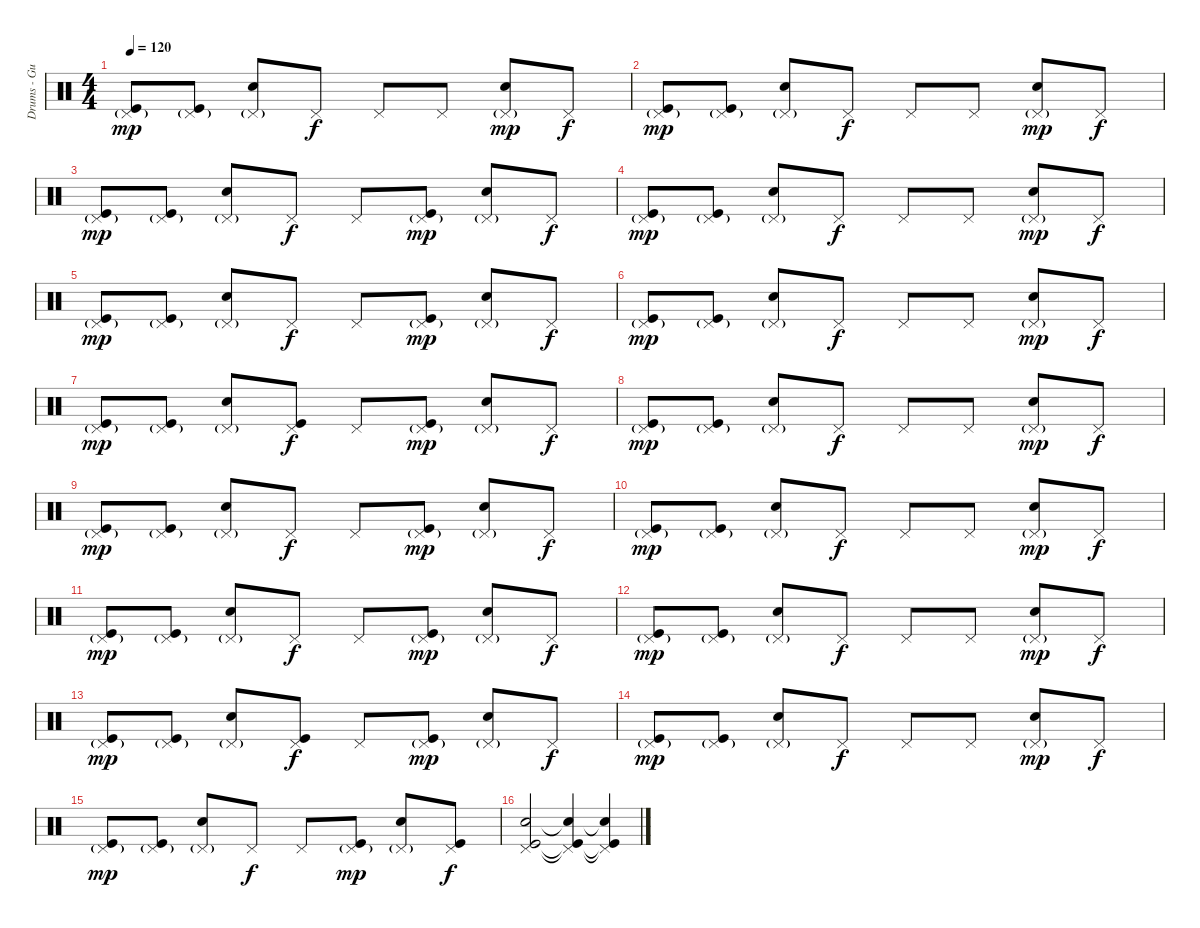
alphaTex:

\track ("Drums - Gustav" "Drums - Gu") {instrument percussion}
\staff {score}
\articulation defaults
\ts (4 4)
\tempo 120
\clef neutral
\ks c
("Kick (hit)" "Pedal Hi-Hat (hit)"{g}).8{dy mp} ("Kick (hit)" "Pedal Hi-Hat (hit)"{g}).8 ("Pedal Hi-Hat (hit)"{g} "Snare (hit) 2").8 "Pedal Hi-Hat (hit)".8{dy f} "Pedal Hi-Hat (hit)".8 "Pedal Hi-Hat (hit)".8 ("Pedal Hi-Hat (hit)"{g} "Snare (hit) 2").8{dy mp} "Pedal Hi-Hat (hit)".8{dy f} |
("Kick (hit)" "Pedal Hi-Hat (hit)"{g}).8{dy mp} ("Kick (hit)" "Pedal Hi-Hat (hit)"{g}).8 ("Pedal Hi-Hat (hit)"{g} "Snare (hit) 2").8 "Pedal Hi-Hat (hit)".8{dy f} "Pedal Hi-Hat (hit)".8 "Pedal Hi-Hat (hit)".8 ("Pedal Hi-Hat (hit)"{g} "Snare (hit) 2").8{dy mp} "Pedal Hi-Hat (hit)".8{dy f} |
("Kick (hit)" "Pedal Hi-Hat (hit)"{g}).8{dy mp} ("Kick (hit)" "Pedal Hi-Hat (hit)"{g}).8 ("Pedal Hi-Hat (hit)"{g} "Snare (hit) 2").8 "Pedal Hi-Hat (hit)".8{dy f} "Pedal Hi-Hat (hit)".8 ("Kick (hit)" "Pedal Hi-Hat (hit)"{g}).8{dy mp} ("Pedal Hi-Hat (hit)"{g} "Snare (hit) 2").8 "Pedal Hi-Hat (hit)".8{dy f} |
("Kick (hit)" "Pedal Hi-Hat (hit)"{g}).8{dy mp} ("Kick (hit)" "Pedal Hi-Hat (hit)"{g}).8 ("Pedal Hi-Hat (hit)"{g} "Snare (hit) 2").8 "Pedal Hi-Hat (hit)".8{dy f} "Pedal Hi-Hat (hit)".8 "Pedal Hi-Hat (hit)".8 ("Pedal Hi-Hat (hit)"{g} "Snare (hit) 2").8{dy mp} "Pedal Hi-Hat (hit)".8{dy f} |
("Kick (hit)" "Pedal Hi-Hat (hit)"{g}).8{dy mp} ("Kick (hit)" "Pedal Hi-Hat (hit)"{g}).8 ("Pedal Hi-Hat (hit)"{g} "Snare (hit) 2").8 "Pedal Hi-Hat (hit)".8{dy f} "Pedal Hi-Hat (hit)".8 ("Kick (hit)" "Pedal Hi-Hat (hit)"{g}).8{dy mp} ("Pedal Hi-Hat (hit)"{g} "Snare (hit) 2").8 "Pedal Hi-Hat (hit)".8{dy f} |
("Kick (hit)" "Pedal Hi-Hat (hit)"{g}).8{dy mp} ("Kick (hit)" "Pedal Hi-Hat (hit)"{g}).8 ("Pedal Hi-Hat (hit)"{g} "Snare (hit) 2").8 "Pedal Hi-Hat (hit)".8{dy f} "Pedal Hi-Hat (hit)".8 "Pedal Hi-Hat (hit)".8 ("Pedal Hi-Hat (hit)"{g} "Snare (hit) 2").8{dy mp} "Pedal Hi-Hat (hit)".8{dy f} |
("Kick (hit)" "Pedal Hi-Hat (hit)"{g}).8{dy mp} ("Kick (hit)" "Pedal Hi-Hat (hit)"{g}).8 ("Pedal Hi-Hat (hit)"{g} "Snare (hit) 2").8 ("Kick (hit)" "Pedal Hi-Hat (hit)").8{dy f} "Pedal Hi-Hat (hit)".8 ("Kick (hit)" "Pedal Hi-Hat (hit)"{g}).8{dy mp} ("Pedal Hi-Hat (hit)"{g} "Snare (hit) 2").8 "Pedal Hi-Hat (hit)".8{dy f} |
("Kick (hit)" "Pedal Hi-Hat (hit)"{g}).8{dy mp} ("Kick (hit)" "Pedal Hi-Hat (hit)"{g}).8 ("Pedal Hi-Hat (hit)"{g} "Snare (hit) 2").8 "Pedal Hi-Hat (hit)".8{dy f} "Pedal Hi-Hat (hit)".8 "Pedal Hi-Hat (hit)".8 ("Pedal Hi-Hat (hit)"{g} "Snare (hit) 2").8{dy mp} "Pedal Hi-Hat (hit)".8{dy f} |
("Kick (hit)" "Pedal Hi-Hat (hit)"{g}).8{dy mp} ("Kick (hit)" "Pedal Hi-Hat (hit)"{g}).8 ("Pedal Hi-Hat (hit)"{g} "Snare (hit) 2").8 "Pedal Hi-Hat (hit)".8{dy f} "Pedal Hi-Hat (hit)".8 ("Kick (hit)" "Pedal Hi-Hat (hit)"{g}).8{dy mp} ("Pedal Hi-Hat (hit)"{g} "Snare (hit) 2").8 "Pedal Hi-Hat (hit)".8{dy f} |
("Kick (hit)" "Pedal Hi-Hat (hit)"{g}).8{dy mp} ("Kick (hit)" "Pedal Hi-Hat (hit)"{g}).8 ("Pedal Hi-Hat (hit)"{g} "Snare (hit) 2").8 "Pedal Hi-Hat (hit)".8{dy f} "Pedal Hi-Hat (hit)".8 "Pedal Hi-Hat (hit)".8 ("Pedal Hi-Hat (hit)"{g} "Snare (hit) 2").8{dy mp} "Pedal Hi-Hat (hit)".8{dy f} |
("Kick (hit)" "Pedal Hi-Hat (hit)"{g}).8{dy mp} ("Kick (hit)" "Pedal Hi-Hat (hit)"{g}).8 ("Pedal Hi-Hat (hit)"{g} "Snare (hit) 2").8 "Pedal Hi-Hat (hit)".8{dy f} "Pedal Hi-Hat (hit)".8 ("Kick (hit)" "Pedal Hi-Hat (hit)"{g}).8{dy mp} ("Pedal Hi-Hat (hit)"{g} "Snare (hit) 2").8 "Pedal Hi-Hat (hit)".8{dy f} |
("Kick (hit)" "Pedal Hi-Hat (hit)"{g}).8{dy mp} ("Kick (hit)" "Pedal Hi-Hat (hit)"{g}).8 ("Pedal Hi-Hat (hit)"{g} "Snare (hit) 2").8 "Pedal Hi-Hat (hit)".8{dy f} "Pedal Hi-Hat (hit)".8 "Pedal Hi-Hat (hit)".8 ("Pedal Hi-Hat (hit)"{g} "Snare (hit) 2").8{dy mp} "Pedal Hi-Hat (hit)".8{dy f} |
("Kick (hit)" "Pedal Hi-Hat (hit)"{g}).8{dy mp} ("Kick (hit)" "Pedal Hi-Hat (hit)"{g}).8 ("Pedal Hi-Hat (hit)"{g} "Snare (hit) 2").8 ("Kick (hit)" "Pedal Hi-Hat (hit)").8{dy f} "Pedal Hi-Hat (hit)".8 ("Kick (hit)" "Pedal Hi-Hat (hit)"{g}).8{dy mp} ("Pedal Hi-Hat (hit)"{g} "Snare (hit) 2").8 "Pedal Hi-Hat (hit)".8{dy f} |
("Kick (hit)" "Pedal Hi-Hat (hit)"{g}).8{dy mp} ("Kick (hit)" "Pedal Hi-Hat (hit)"{g}).8 ("Pedal Hi-Hat (hit)"{g} "Snare (hit) 2").8 "Pedal Hi-Hat (hit)".8{dy f} "Pedal Hi-Hat (hit)".8 "Pedal Hi-Hat (hit)".8 ("Pedal Hi-Hat (hit)"{g} "Snare (hit) 2").8{dy mp} "Pedal Hi-Hat (hit)".8{dy f} |
("Kick (hit)" "Pedal Hi-Hat (hit)"{g}).8{dy mp} ("Kick (hit)" "Pedal Hi-Hat (hit)"{g}).8 ("Pedal Hi-Hat (hit)"{g} "Snare (hit) 2").8 "Pedal Hi-Hat (hit)".8{dy f} "Pedal Hi-Hat (hit)".8 ("Kick (hit)" "Pedal Hi-Hat (hit)"{g}).8{dy mp} ("Pedal Hi-Hat (hit)"{g} "Snare (hit) 2").8 ("Kick (hit)" "Pedal Hi-Hat (hit)").8{dy f} |
("Kick (hit)" "Pedal Hi-Hat (hit)" "Snare (hit) 2").2 ("Kick (hit)"{t} "Pedal Hi-Hat (hit)"{t} "Snare (hit) 2"{t}).4 ("Kick (hit)"{t} "Pedal Hi-Hat (hit)"{t} "Snare (hit) 2"{t}).4{volume 0}
